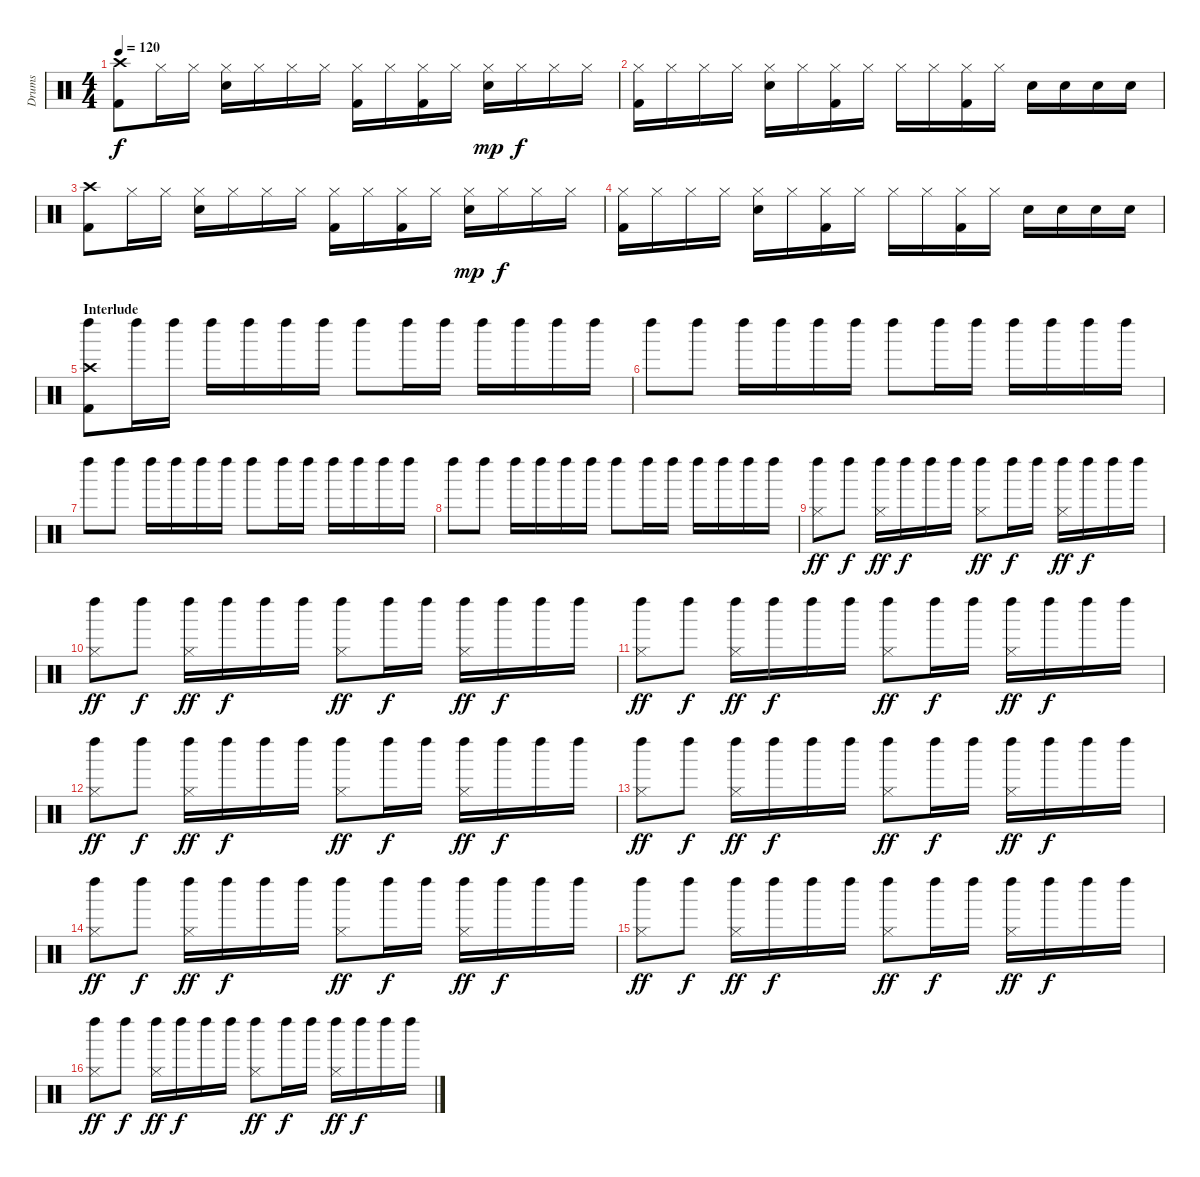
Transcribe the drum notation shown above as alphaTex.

\track ("Drums" "Drums") {instrument percussion}
\staff {score}
\articulation defaults
\ts (4 4)
\tempo 120
\clef neutral
\ks c
("Crash high (hit)" "Kick (hit) 2").8{dy f} "Hi-Hat (closed)".16 "Hi-Hat (closed)".16 ("Hi-Hat (closed)" "Electric Snare (hit)").16 "Hi-Hat (closed)".16 "Hi-Hat (closed)".16 "Hi-Hat (closed)".16 ("Hi-Hat (closed)" "Kick (hit) 2").16 "Hi-Hat (closed)".16 ("Hi-Hat (closed)" "Kick (hit) 2").16 "Hi-Hat (closed)".16 ("Hi-Hat (closed)" "Electric Snare (hit)").16{dy mp} "Hi-Hat (closed)".16{dy f} "Hi-Hat (closed)".16 "Hi-Hat (closed)".16 |
("Hi-Hat (closed)" "Kick (hit) 2").16 "Hi-Hat (closed)".16 "Hi-Hat (closed)".16 "Hi-Hat (closed)".16 ("Hi-Hat (closed)" "Electric Snare (hit)").16 "Hi-Hat (closed)".16 ("Hi-Hat (closed)" "Kick (hit) 2").16 "Hi-Hat (closed)".16 "Hi-Hat (closed)".16 "Hi-Hat (closed)".16 ("Hi-Hat (closed)" "Kick (hit) 2").16 "Hi-Hat (closed)".16 "Electric Snare (hit)".16 "Electric Snare (hit)".16 "Electric Snare (hit)".16 "Electric Snare (hit)".16 |
("Crash high (hit)" "Kick (hit) 2").8 "Hi-Hat (closed)".16 "Hi-Hat (closed)".16 ("Hi-Hat (closed)" "Electric Snare (hit)").16 "Hi-Hat (closed)".16 "Hi-Hat (closed)".16 "Hi-Hat (closed)".16 ("Hi-Hat (closed)" "Kick (hit) 2").16 "Hi-Hat (closed)".16 ("Hi-Hat (closed)" "Kick (hit) 2").16 "Hi-Hat (closed)".16 ("Hi-Hat (closed)" "Electric Snare (hit)").16{dy mp} "Hi-Hat (closed)".16{dy f} "Hi-Hat (closed)".16 "Hi-Hat (closed)".16 |
("Hi-Hat (closed)" "Kick (hit) 2").16 "Hi-Hat (closed)".16 "Hi-Hat (closed)".16 "Hi-Hat (closed)".16 ("Hi-Hat (closed)" "Electric Snare (hit)").16 "Hi-Hat (closed)".16 ("Hi-Hat (closed)" "Kick (hit) 2").16 "Hi-Hat (closed)".16 "Hi-Hat (closed)".16 "Hi-Hat (closed)".16 ("Hi-Hat (closed)" "Kick (hit) 2").16 "Hi-Hat (closed)".16 "Electric Snare (hit)".16 "Electric Snare (hit)".16 "Electric Snare (hit)".16 "Electric Snare (hit)".16 |
\section ("" "Interlude")
("Crash high (hit)" "Left Maraca (hit)" "Kick (hit) 2").8 "Left Maraca (hit)".16 "Left Maraca (hit)".16 "Left Maraca (hit)".16 "Left Maraca (hit)".16 "Left Maraca (hit)".16 "Left Maraca (hit)".16 "Left Maraca (hit)".8 "Left Maraca (hit)".16 "Left Maraca (hit)".16 "Left Maraca (hit)".16 "Left Maraca (hit)".16 "Left Maraca (hit)".16 "Left Maraca (hit)".16 |
"Left Maraca (hit)".8 "Left Maraca (hit)".8 "Left Maraca (hit)".16 "Left Maraca (hit)".16 "Left Maraca (hit)".16 "Left Maraca (hit)".16 "Left Maraca (hit)".8 "Left Maraca (hit)".16 "Left Maraca (hit)".16 "Left Maraca (hit)".16 "Left Maraca (hit)".16 "Left Maraca (hit)".16 "Left Maraca (hit)".16 |
"Left Maraca (hit)".8 "Left Maraca (hit)".8 "Left Maraca (hit)".16 "Left Maraca (hit)".16 "Left Maraca (hit)".16 "Left Maraca (hit)".16 "Left Maraca (hit)".8 "Left Maraca (hit)".16 "Left Maraca (hit)".16 "Left Maraca (hit)".16 "Left Maraca (hit)".16 "Left Maraca (hit)".16 "Left Maraca (hit)".16 |
"Left Maraca (hit)".8 "Left Maraca (hit)".8 "Left Maraca (hit)".16 "Left Maraca (hit)".16 "Left Maraca (hit)".16 "Left Maraca (hit)".16 "Left Maraca (hit)".8 "Left Maraca (hit)".16 "Left Maraca (hit)".16 "Left Maraca (hit)".16 "Left Maraca (hit)".16 "Left Maraca (hit)".16 "Left Maraca (hit)".16 |
("Hi-Hat (closed)" "Left Maraca (hit)").8{dy ff} "Left Maraca (hit)".8{dy f} ("Hi-Hat (closed)" "Left Maraca (hit)").16{dy ff} "Left Maraca (hit)".16{dy f} "Left Maraca (hit)".16 "Left Maraca (hit)".16 ("Hi-Hat (closed)" "Left Maraca (hit)").8{dy ff} "Left Maraca (hit)".16{dy f} "Left Maraca (hit)".16 ("Hi-Hat (closed)" "Left Maraca (hit)").16{dy ff} "Left Maraca (hit)".16{dy f} "Left Maraca (hit)".16 "Left Maraca (hit)".16 |
("Hi-Hat (closed)" "Left Maraca (hit)").8{dy ff} "Left Maraca (hit)".8{dy f} ("Hi-Hat (closed)" "Left Maraca (hit)").16{dy ff} "Left Maraca (hit)".16{dy f} "Left Maraca (hit)".16 "Left Maraca (hit)".16 ("Hi-Hat (closed)" "Left Maraca (hit)").8{dy ff} "Left Maraca (hit)".16{dy f} "Left Maraca (hit)".16 ("Hi-Hat (closed)" "Left Maraca (hit)").16{dy ff} "Left Maraca (hit)".16{dy f} "Left Maraca (hit)".16 "Left Maraca (hit)".16 |
("Hi-Hat (closed)" "Left Maraca (hit)").8{dy ff} "Left Maraca (hit)".8{dy f} ("Hi-Hat (closed)" "Left Maraca (hit)").16{dy ff} "Left Maraca (hit)".16{dy f} "Left Maraca (hit)".16 "Left Maraca (hit)".16 ("Hi-Hat (closed)" "Left Maraca (hit)").8{dy ff} "Left Maraca (hit)".16{dy f} "Left Maraca (hit)".16 ("Hi-Hat (closed)" "Left Maraca (hit)").16{dy ff} "Left Maraca (hit)".16{dy f} "Left Maraca (hit)".16 "Left Maraca (hit)".16 |
("Hi-Hat (closed)" "Left Maraca (hit)").8{dy ff} "Left Maraca (hit)".8{dy f} ("Hi-Hat (closed)" "Left Maraca (hit)").16{dy ff} "Left Maraca (hit)".16{dy f} "Left Maraca (hit)".16 "Left Maraca (hit)".16 ("Hi-Hat (closed)" "Left Maraca (hit)").8{dy ff} "Left Maraca (hit)".16{dy f} "Left Maraca (hit)".16 ("Hi-Hat (closed)" "Left Maraca (hit)").16{dy ff} "Left Maraca (hit)".16{dy f} "Left Maraca (hit)".16 "Left Maraca (hit)".16 |
("Hi-Hat (closed)" "Left Maraca (hit)").8{dy ff} "Left Maraca (hit)".8{dy f} ("Hi-Hat (closed)" "Left Maraca (hit)").16{dy ff} "Left Maraca (hit)".16{dy f} "Left Maraca (hit)".16 "Left Maraca (hit)".16 ("Hi-Hat (closed)" "Left Maraca (hit)").8{dy ff} "Left Maraca (hit)".16{dy f} "Left Maraca (hit)".16 ("Hi-Hat (closed)" "Left Maraca (hit)").16{dy ff} "Left Maraca (hit)".16{dy f} "Left Maraca (hit)".16 "Left Maraca (hit)".16 |
("Hi-Hat (closed)" "Left Maraca (hit)").8{dy ff} "Left Maraca (hit)".8{dy f} ("Hi-Hat (closed)" "Left Maraca (hit)").16{dy ff} "Left Maraca (hit)".16{dy f} "Left Maraca (hit)".16 "Left Maraca (hit)".16 ("Hi-Hat (closed)" "Left Maraca (hit)").8{dy ff} "Left Maraca (hit)".16{dy f} "Left Maraca (hit)".16 ("Hi-Hat (closed)" "Left Maraca (hit)").16{dy ff} "Left Maraca (hit)".16{dy f} "Left Maraca (hit)".16 "Left Maraca (hit)".16 |
("Hi-Hat (closed)" "Left Maraca (hit)").8{dy ff} "Left Maraca (hit)".8{dy f} ("Hi-Hat (closed)" "Left Maraca (hit)").16{dy ff} "Left Maraca (hit)".16{dy f} "Left Maraca (hit)".16 "Left Maraca (hit)".16 ("Hi-Hat (closed)" "Left Maraca (hit)").8{dy ff} "Left Maraca (hit)".16{dy f} "Left Maraca (hit)".16 ("Hi-Hat (closed)" "Left Maraca (hit)").16{dy ff} "Left Maraca (hit)".16{dy f} "Left Maraca (hit)".16 "Left Maraca (hit)".16 |
("Hi-Hat (closed)" "Left Maraca (hit)").8{dy ff} "Left Maraca (hit)".8{dy f} ("Hi-Hat (closed)" "Left Maraca (hit)").16{dy ff} "Left Maraca (hit)".16{dy f} "Left Maraca (hit)".16 "Left Maraca (hit)".16 ("Hi-Hat (closed)" "Left Maraca (hit)").8{dy ff} "Left Maraca (hit)".16{dy f} "Left Maraca (hit)".16 ("Hi-Hat (closed)" "Left Maraca (hit)").16{dy ff} "Left Maraca (hit)".16{dy f} "Left Maraca (hit)".16 "Left Maraca (hit)".16
